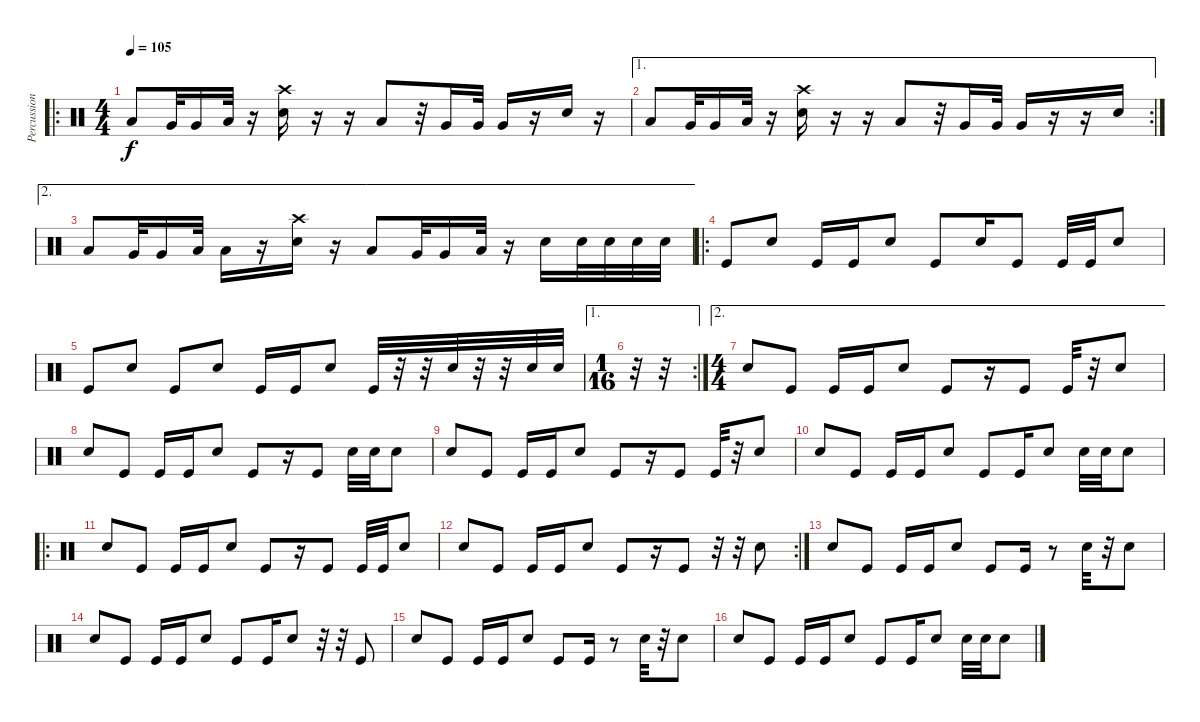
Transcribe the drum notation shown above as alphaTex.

\track ("Percussion" "Percussion") {instrument percussion}
\staff {score}
\articulation defaults
\ro
\ts (4 4)
\tempo 105
\clef neutral
\ks c "Low Tom (hit)".8{dy f} "Very Low Tom (hit)".32 "Very Low Tom (hit)".16 "Low Tom (hit)".32
r.16 ("Crash high (hit)" "Electric Snare (hit)").16 r.16 r.16 "Low Tom (hit)".8 r.32 "Very Low Tom (hit)".16 "Very Low Tom (hit)".32 "Very Low Tom (hit)".16 r.16 "Electric Snare (hit)".16 r.16 |
\ae 1
\rc 2 "Low Tom (hit)".8 "Very Low Tom (hit)".32 "Very Low Tom (hit)".16 "Low Tom (hit)".32
r.16 ("Crash high (hit)" "Electric Snare (hit)").16 r.16 r.16 "Low Tom (hit)".8 r.32 "Very Low Tom (hit)".16 "Very Low Tom (hit)".32 "Very Low Tom (hit)".16 r.16 r.16 "Electric Snare (hit)".16 |
\ae 2 "Low Tom (hit)".8 "Very Low Tom (hit)".32 "Very Low Tom (hit)".16 "Low Tom (hit)".32 "Low Tom (hit)".16
r.16 ("Crash high (hit)" "Electric Snare (hit)").16 r.16 "Low Tom (hit)".8 "Very Low Tom (hit)".32 "Very Low Tom (hit)".16 "Low Tom (hit)".32 r.16 "Electric Snare (hit)".16 "Electric Snare (hit)".32 "Electric Snare (hit)".32 "Electric Snare (hit)".32 "Electric Snare (hit)".32 |
\ro "Kick (hit)".8 "Electric Snare (hit)".8 "Kick (hit)".16 "Kick (hit)".16 "Electric Snare (hit)".8 "Kick (hit)".8 "Electric Snare (hit)".16 "Kick (hit)".8 "Kick (hit)".32 "Kick (hit)".32 "Electric Snare (hit)".8
|
"Kick (hit)".8 "Electric Snare (hit)".8 "Kick (hit)".8 "Electric Snare (hit)".8 "Kick (hit)".16 "Kick (hit)".16 "Electric Snare (hit)".8 "Kick (hit)".32 r.32 r.32 "Electric Snare (hit)".32 r.32 r.32 "Electric Snare (hit)".32 "Electric Snare (hit)".32 |
\ae 1
\rc 2
\ts (1 16)
r.32 r.32 |
\ae 2
\ts (4 4)
"Electric Snare (hit)".8 "Kick (hit)".8 "Kick (hit)".16 "Kick (hit)".16 "Electric Snare (hit)".8 "Kick (hit)".8 r.16 "Kick (hit)".8 "Kick (hit)".32 r.32 "Electric Snare (hit)".8 |
"Electric Snare (hit)".8 "Kick (hit)".8 "Kick (hit)".16 "Kick (hit)".16 "Electric Snare (hit)".8 "Kick (hit)".8 r.16 "Kick (hit)".8 "Electric Snare (hit)".32 "Electric Snare (hit)".32 "Electric Snare (hit)".8 |
"Electric Snare (hit)".8 "Kick (hit)".8 "Kick (hit)".16 "Kick (hit)".16 "Electric Snare (hit)".8 "Kick (hit)".8 r.16 "Kick (hit)".8 "Kick (hit)".32 r.32 "Electric Snare (hit)".8 |
"Electric Snare (hit)".8 "Kick (hit)".8 "Kick (hit)".16 "Kick (hit)".16 "Electric Snare (hit)".8 "Kick (hit)".8 "Kick (hit)".16 "Electric Snare (hit)".8 "Electric Snare (hit)".32 "Electric Snare (hit)".32 "Electric Snare (hit)".8 |
\ro "Electric Snare (hit)".8 "Kick (hit)".8 "Kick (hit)".16 "Kick (hit)".16 "Electric Snare (hit)".8 "Kick (hit)".8
r.16 "Kick (hit)".8 "Kick (hit)".32 "Kick (hit)".32 "Electric Snare (hit)".8 |
\rc 2 "Electric Snare (hit)".8 "Kick (hit)".8 "Kick (hit)".16 "Kick (hit)".16 "Electric Snare (hit)".8 "Kick (hit)".8
r.16 "Kick (hit)".8 r.32 r.32 "Electric Snare (hit)".8 |
"Electric Snare (hit)".8 "Kick (hit)".8 "Kick (hit)".16 "Kick (hit)".16 "Electric Snare (hit)".8 "Kick (hit)".8 "Kick (hit)".16 r.8 "Electric Snare (hit)".32 r.32 "Electric Snare (hit)".8 |
"Electric Snare (hit)".8 "Kick (hit)".8 "Kick (hit)".16 "Kick (hit)".16 "Electric Snare (hit)".8 "Kick (hit)".8 "Kick (hit)".16 "Electric Snare (hit)".8 r.32 r.32 "Kick (hit)".8 |
"Electric Snare (hit)".8 "Kick (hit)".8 "Kick (hit)".16 "Kick (hit)".16 "Electric Snare (hit)".8 "Kick (hit)".8 "Kick (hit)".16 r.8 "Electric Snare (hit)".32 r.32 "Electric Snare (hit)".8 |
"Electric Snare (hit)".8 "Kick (hit)".8 "Kick (hit)".16 "Kick (hit)".16 "Electric Snare (hit)".8 "Kick (hit)".8 "Kick (hit)".16 "Electric Snare (hit)".8 "Electric Snare (hit)".32 "Electric Snare (hit)".32 "Electric Snare (hit)".8
